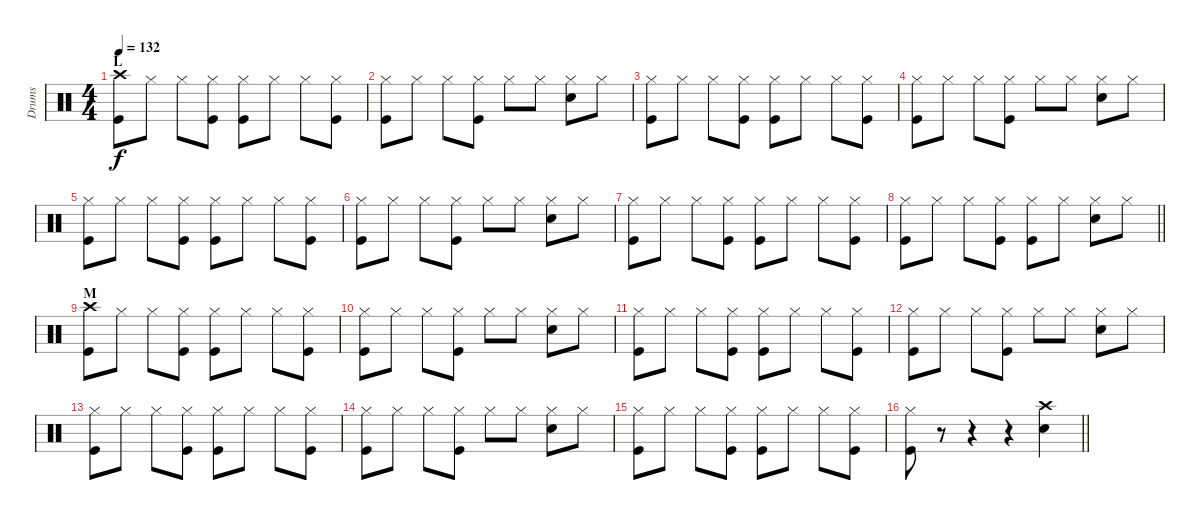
\track ("Drums" "Drums") {instrument percussion}
\staff {score}
\articulation defaults
\ts (4 4)
\section ("" "L")
\tempo 132
\clef neutral
\ks c
("Crash high (hit)" "Kick (hit)").8{dy f} "Hi-Hat (closed)".8 "Hi-Hat (closed)".8 ("Hi-Hat (closed)" "Kick (hit)").8 ("Hi-Hat (closed)" "Kick (hit)").8 "Hi-Hat (closed)".8 "Hi-Hat (closed)".8 ("Hi-Hat (closed)" "Kick (hit)").8 |
("Hi-Hat (closed)" "Kick (hit)").8 "Hi-Hat (closed)".8 "Hi-Hat (closed)".8 ("Hi-Hat (closed)" "Kick (hit)").8 "Hi-Hat (closed)".8 "Hi-Hat (closed)".8 ("Hi-Hat (closed)" "Electric Snare (hit)").8 "Hi-Hat (closed)".8 |
("Hi-Hat (closed)" "Kick (hit)").8 "Hi-Hat (closed)".8 "Hi-Hat (closed)".8 ("Hi-Hat (closed)" "Kick (hit)").8 ("Hi-Hat (closed)" "Kick (hit)").8 "Hi-Hat (closed)".8 "Hi-Hat (closed)".8 ("Hi-Hat (closed)" "Kick (hit)").8 |
("Hi-Hat (closed)" "Kick (hit)").8 "Hi-Hat (closed)".8 "Hi-Hat (closed)".8 ("Hi-Hat (closed)" "Kick (hit)").8 "Hi-Hat (closed)".8 "Hi-Hat (closed)".8 ("Hi-Hat (closed)" "Electric Snare (hit)").8 "Hi-Hat (closed)".8 |
("Hi-Hat (closed)" "Kick (hit)").8 "Hi-Hat (closed)".8 "Hi-Hat (closed)".8 ("Hi-Hat (closed)" "Kick (hit)").8 ("Hi-Hat (closed)" "Kick (hit)").8 "Hi-Hat (closed)".8 "Hi-Hat (closed)".8 ("Hi-Hat (closed)" "Kick (hit)").8 |
("Hi-Hat (closed)" "Kick (hit)").8 "Hi-Hat (closed)".8 "Hi-Hat (closed)".8 ("Hi-Hat (closed)" "Kick (hit)").8 "Hi-Hat (closed)".8 "Hi-Hat (closed)".8 ("Hi-Hat (closed)" "Electric Snare (hit)").8 "Hi-Hat (closed)".8 |
("Hi-Hat (closed)" "Kick (hit)").8 "Hi-Hat (closed)".8 "Hi-Hat (closed)".8 ("Hi-Hat (closed)" "Kick (hit)").8 ("Hi-Hat (closed)" "Kick (hit)").8 "Hi-Hat (closed)".8 "Hi-Hat (closed)".8 ("Hi-Hat (closed)" "Kick (hit)").8 |
\barLineRight lightlight
("Hi-Hat (closed)" "Kick (hit)").8 "Hi-Hat (closed)".8 "Hi-Hat (closed)".8 ("Hi-Hat (closed)" "Kick (hit)").8 ("Hi-Hat (closed)" "Kick (hit)").8 "Hi-Hat (closed)".8 ("Hi-Hat (closed)" "Electric Snare (hit)").8 "Hi-Hat (closed)".8 |
\section ("" "M")
("Crash high (hit)" "Kick (hit)").8 "Hi-Hat (closed)".8 "Hi-Hat (closed)".8 ("Hi-Hat (closed)" "Kick (hit)").8 ("Hi-Hat (closed)" "Kick (hit)").8 "Hi-Hat (closed)".8 "Hi-Hat (closed)".8 ("Hi-Hat (closed)" "Kick (hit)").8 |
("Hi-Hat (closed)" "Kick (hit)").8 "Hi-Hat (closed)".8 "Hi-Hat (closed)".8 ("Hi-Hat (closed)" "Kick (hit)").8 "Hi-Hat (closed)".8 "Hi-Hat (closed)".8 ("Hi-Hat (closed)" "Electric Snare (hit)").8 "Hi-Hat (closed)".8 |
("Hi-Hat (closed)" "Kick (hit)").8 "Hi-Hat (closed)".8 "Hi-Hat (closed)".8 ("Hi-Hat (closed)" "Kick (hit)").8 ("Hi-Hat (closed)" "Kick (hit)").8 "Hi-Hat (closed)".8 "Hi-Hat (closed)".8 ("Hi-Hat (closed)" "Kick (hit)").8 |
("Hi-Hat (closed)" "Kick (hit)").8 "Hi-Hat (closed)".8 "Hi-Hat (closed)".8 ("Hi-Hat (closed)" "Kick (hit)").8 "Hi-Hat (closed)".8 "Hi-Hat (closed)".8 ("Hi-Hat (closed)" "Electric Snare (hit)").8 "Hi-Hat (closed)".8 |
("Hi-Hat (closed)" "Kick (hit)").8 "Hi-Hat (closed)".8 "Hi-Hat (closed)".8 ("Hi-Hat (closed)" "Kick (hit)").8 ("Hi-Hat (closed)" "Kick (hit)").8 "Hi-Hat (closed)".8 "Hi-Hat (closed)".8 ("Hi-Hat (closed)" "Kick (hit)").8 |
("Hi-Hat (closed)" "Kick (hit)").8 "Hi-Hat (closed)".8 "Hi-Hat (closed)".8 ("Hi-Hat (closed)" "Kick (hit)").8 "Hi-Hat (closed)".8 "Hi-Hat (closed)".8 ("Hi-Hat (closed)" "Electric Snare (hit)").8 "Hi-Hat (closed)".8 |
("Hi-Hat (closed)" "Kick (hit)").8 "Hi-Hat (closed)".8 "Hi-Hat (closed)".8 ("Hi-Hat (closed)" "Kick (hit)").8 ("Hi-Hat (closed)" "Kick (hit)").8 "Hi-Hat (closed)".8 "Hi-Hat (closed)".8 ("Hi-Hat (closed)" "Kick (hit)").8 |
\barLineRight lightlight
("Hi-Hat (closed)" "Kick (hit)").8 r.8 r.4 r.4 ("Crash high (hit)" "Electric Snare (hit)").4
